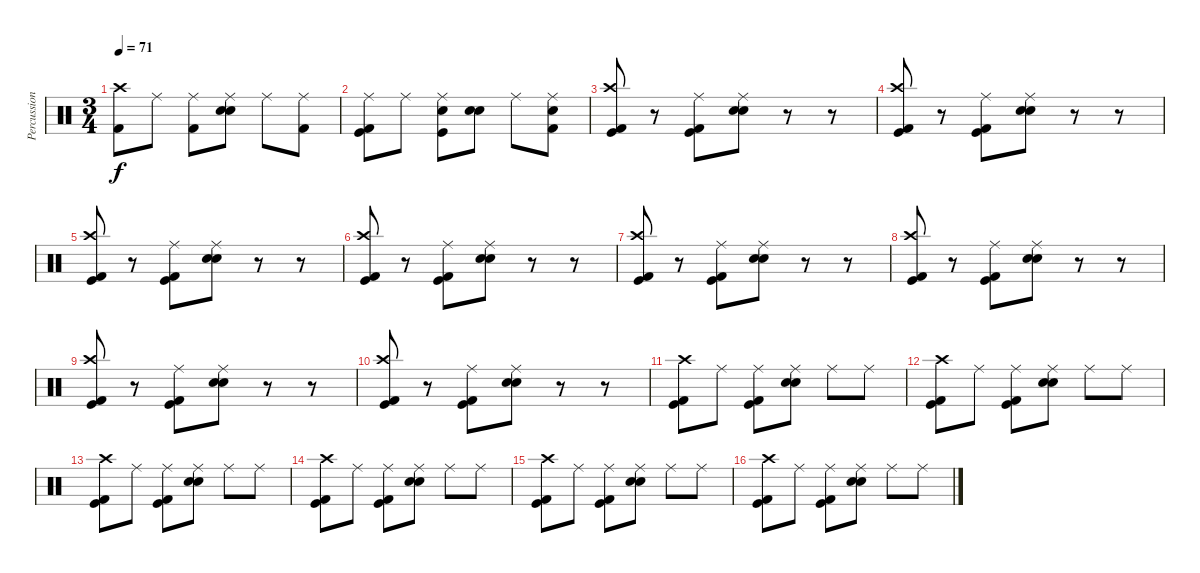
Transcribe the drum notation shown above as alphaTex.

\track ("Percussion" "Percussion") {instrument percussion}
\staff {score}
\articulation defaults
\ts (3 4)
\tempo 71
\clef neutral
\ks c
("Kick (hit) 2" "Crash high (hit)").8{dy f} "Ride (middle)".8 ("Kick (hit) 2" "Ride (middle)").8 ("Ride (middle)" "Electric Snare (hit)" "Snare (hit) 2").8 "Ride (middle)".8 ("Kick (hit) 2" "Ride (middle)").8 |
("Ride (middle)" "Kick (hit) 2" "Kick (hit)").8 "Ride (middle)".8 ("Kick (hit)" "Snare (hit) 2" "Ride (middle)").8 ("Electric Snare (hit)" "Snare (hit) 2").8 "Ride (middle)".8 ("Kick (hit) 2" "Snare (hit) 2" "Ride (middle)").8 |
("Kick (hit)" "Kick (hit) 2" "Crash high (hit)").8 r.8 ("Kick (hit) 2" "Kick (hit)" "Ride (middle)").8 ("Ride (middle)" "Electric Snare (hit)" "Snare (hit) 2").8 r.8 r.8 |
("Kick (hit)" "Kick (hit) 2" "Crash high (hit)").8 r.8 ("Kick (hit) 2" "Kick (hit)" "Ride (middle)").8 ("Ride (middle)" "Electric Snare (hit)" "Snare (hit) 2").8 r.8 r.8 |
("Kick (hit)" "Kick (hit) 2" "Crash high (hit)").8 r.8 ("Kick (hit) 2" "Kick (hit)" "Ride (middle)").8 ("Ride (middle)" "Electric Snare (hit)" "Snare (hit) 2").8 r.8 r.8 |
("Kick (hit)" "Kick (hit) 2" "Crash high (hit)").8 r.8 ("Kick (hit) 2" "Kick (hit)" "Ride (middle)").8 ("Ride (middle)" "Electric Snare (hit)" "Snare (hit) 2").8 r.8 r.8 |
("Kick (hit)" "Kick (hit) 2" "Crash high (hit)").8 r.8 ("Kick (hit) 2" "Kick (hit)" "Ride (middle)").8 ("Ride (middle)" "Electric Snare (hit)" "Snare (hit) 2").8 r.8 r.8 |
("Kick (hit)" "Kick (hit) 2" "Crash high (hit)").8 r.8 ("Kick (hit) 2" "Kick (hit)" "Ride (middle)").8 ("Ride (middle)" "Electric Snare (hit)" "Snare (hit) 2").8 r.8 r.8 |
("Kick (hit)" "Kick (hit) 2" "Crash high (hit)").8 r.8 ("Kick (hit) 2" "Kick (hit)" "Ride (middle)").8 ("Ride (middle)" "Electric Snare (hit)" "Snare (hit) 2").8 r.8 r.8 |
("Kick (hit)" "Kick (hit) 2" "Crash high (hit)").8 r.8 ("Kick (hit) 2" "Kick (hit)" "Ride (middle)").8 ("Ride (middle)" "Electric Snare (hit)" "Snare (hit) 2").8 r.8 r.8 |
("Kick (hit)" "Kick (hit) 2" "Crash high (hit)").8 "Ride (middle)".8 ("Kick (hit) 2" "Kick (hit)" "Ride (middle)").8 ("Ride (middle)" "Electric Snare (hit)" "Snare (hit) 2").8 "Ride (middle)".8 "Ride (middle)".8 |
("Kick (hit)" "Kick (hit) 2" "Crash high (hit)").8 "Ride (middle)".8 ("Kick (hit) 2" "Kick (hit)" "Ride (middle)").8 ("Ride (middle)" "Electric Snare (hit)" "Snare (hit) 2").8 "Ride (middle)".8 "Ride (middle)".8 |
("Kick (hit)" "Kick (hit) 2" "Crash high (hit)").8 "Ride (middle)".8 ("Kick (hit) 2" "Kick (hit)" "Ride (middle)").8 ("Ride (middle)" "Electric Snare (hit)" "Snare (hit) 2").8 "Ride (middle)".8 "Ride (middle)".8 |
("Kick (hit)" "Kick (hit) 2" "Crash high (hit)").8 "Ride (middle)".8 ("Kick (hit) 2" "Kick (hit)" "Ride (middle)").8 ("Ride (middle)" "Electric Snare (hit)" "Snare (hit) 2").8 "Ride (middle)".8 "Ride (middle)".8 |
("Kick (hit)" "Kick (hit) 2" "Crash high (hit)").8 "Ride (middle)".8 ("Kick (hit) 2" "Kick (hit)" "Ride (middle)").8 ("Ride (middle)" "Electric Snare (hit)" "Snare (hit) 2").8 "Ride (middle)".8 "Ride (middle)".8 |
("Kick (hit)" "Kick (hit) 2" "Crash high (hit)").8 "Ride (middle)".8 ("Kick (hit) 2" "Kick (hit)" "Ride (middle)").8 ("Ride (middle)" "Electric Snare (hit)" "Snare (hit) 2").8 "Ride (middle)".8 "Ride (middle)".8
